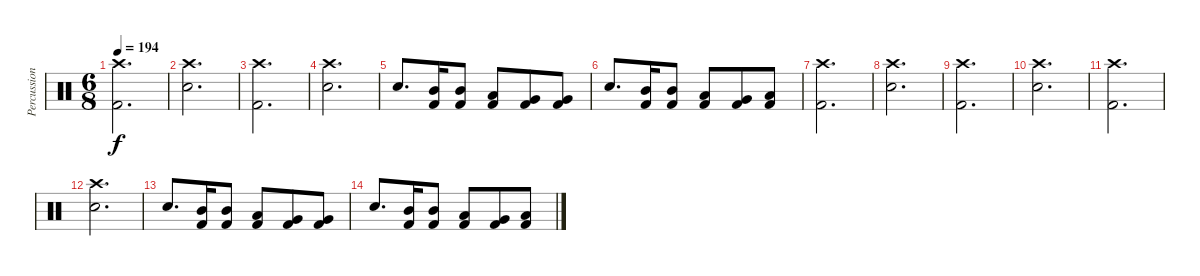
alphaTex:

\track ("Percussion" "Percussion") {instrument percussion}
\staff {score}
\articulation defaults
\ts (6 8)
\tempo 194
\clef neutral
\ks c
("Kick (hit) 2" "Crash high (hit)").2{d dy f} |
("Snare (hit) 2" "Crash high (hit)").2{d} |
("Kick (hit) 2" "Crash high (hit)").2{d} |
("Snare (hit) 2" "Crash high (hit)").2{d} |
"Snare (hit) 2".8{d} ("Kick (hit) 2" "Mid Tom (hit)").16 ("Kick (hit) 2" "Mid Tom (hit)").8 ("Kick (hit) 2" "Low Tom (hit)").8 ("Kick (hit) 2" "Very Low Tom (hit)").8 ("Kick (hit) 2" "Very Low Tom (hit)").8 |
"Snare (hit) 2".8{d} ("Kick (hit) 2" "Mid Tom (hit)").16 ("Kick (hit) 2" "Mid Tom (hit)").8 ("Kick (hit) 2" "Low Tom (hit)").8 ("Kick (hit) 2" "Very Low Tom (hit)").8 ("Kick (hit) 2" "Low Floor Tom (hit)").8 |
("Kick (hit) 2" "Crash high (hit)").2{d} |
("Snare (hit) 2" "Crash high (hit)").2{d} |
("Kick (hit) 2" "Crash high (hit)").2{d} |
("Snare (hit) 2" "Crash high (hit)").2{d} |
("Kick (hit) 2" "Crash high (hit)").2{d} |
("Snare (hit) 2" "Crash high (hit)").2{d} |
"Snare (hit) 2".8{d} ("Kick (hit) 2" "Mid Tom (hit)").16 ("Kick (hit) 2" "Mid Tom (hit)").8 ("Kick (hit) 2" "Low Tom (hit)").8 ("Kick (hit) 2" "Very Low Tom (hit)").8 ("Kick (hit) 2" "Very Low Tom (hit)").8 |
"Snare (hit) 2".8{d} ("Kick (hit) 2" "Mid Tom (hit)").16 ("Kick (hit) 2" "Mid Tom (hit)").8 ("Kick (hit) 2" "Low Tom (hit)").8 ("Kick (hit) 2" "Very Low Tom (hit)").8 ("Kick (hit) 2" "Low Floor Tom (hit)").8
